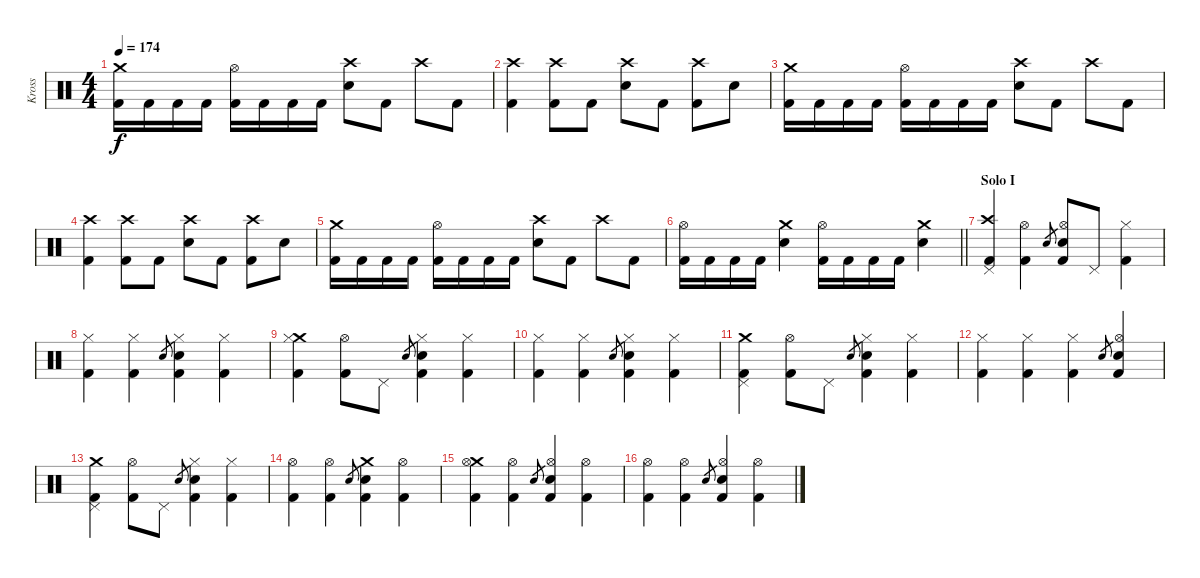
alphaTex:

\track ("Kross" "Kross") {instrument percussion}
\staff {score}
\articulation defaults
\ts (4 4)
\tempo 174
\clef neutral
\ks c
("Crash medium (hit)" "Kick (hit) 2").16{dy f} "Kick (hit) 2".16 "Kick (hit) 2".16 "Kick (hit) 2".16 ("Hi-Hat (open)" "Kick (hit) 2").16 "Kick (hit) 2".16 "Kick (hit) 2".16 "Kick (hit) 2".16 ("Crash high (hit)" "Electric Snare (hit)").8 "Kick (hit) 2".8 "Crash high (hit)".8 "Kick (hit) 2".8 |
("Crash high (hit)" "Kick (hit) 2").4 ("Crash high (hit)" "Kick (hit) 2").8 "Kick (hit) 2".8 ("Crash high (hit)" "Electric Snare (hit)").8 "Kick (hit) 2".8 ("Crash high (hit)" "Kick (hit) 2").8 "Electric Snare (hit)".8 |
("Crash medium (hit)" "Kick (hit) 2").16 "Kick (hit) 2".16 "Kick (hit) 2".16 "Kick (hit) 2".16 ("Hi-Hat (open)" "Kick (hit) 2").16 "Kick (hit) 2".16 "Kick (hit) 2".16 "Kick (hit) 2".16 ("Crash high (hit)" "Electric Snare (hit)").8 "Kick (hit) 2".8 "Crash high (hit)".8 "Kick (hit) 2".8 |
("Crash high (hit)" "Kick (hit) 2").4 ("Crash high (hit)" "Kick (hit) 2").8 "Kick (hit) 2".8 ("Crash high (hit)" "Electric Snare (hit)").8 "Kick (hit) 2".8 ("Crash high (hit)" "Kick (hit) 2").8 "Electric Snare (hit)".8 |
("Crash medium (hit)" "Kick (hit) 2").16 "Kick (hit) 2".16 "Kick (hit) 2".16 "Kick (hit) 2".16 ("Hi-Hat (open)" "Kick (hit) 2").16 "Kick (hit) 2".16 "Kick (hit) 2".16 "Kick (hit) 2".16 ("Crash high (hit)" "Electric Snare (hit)").8 "Kick (hit) 2".8 "Crash high (hit)".8 "Kick (hit) 2".8 |
\barLineRight lightlight
("Hi-Hat (open)" "Kick (hit) 2").16 "Kick (hit) 2".16 "Kick (hit) 2".16 "Kick (hit) 2".16 ("Crash medium (hit)" "Electric Snare (hit)").4 ("Hi-Hat (open)" "Kick (hit) 2").16 "Kick (hit) 2".16 "Kick (hit) 2".16 "Kick (hit) 2".16 ("Crash medium (hit)" "Electric Snare (hit)").4 |
\section ("" "Solo I")
("Crash high (hit)" "Pedal Hi-Hat (hit)" "Kick (hit) 2").4 ("Hi-Hat (open)" "Kick (hit) 2").4 "Electric Snare (hit)".8{gr} ("Hi-Hat (open)" "Electric Snare (hit)" "Kick (hit) 2").8 "Pedal Hi-Hat (hit)".8 ("Hi-Hat (closed)" "Kick (hit) 2").4 |
("Hi-Hat (closed)" "Kick (hit) 2").4 ("Hi-Hat (closed)" "Kick (hit) 2").4 "Electric Snare (hit)".8{gr} ("Hi-Hat (closed)" "Electric Snare (hit)" "Kick (hit) 2").4 ("Hi-Hat (closed)" "Kick (hit) 2").4 |
("Crash medium (hit)" "Hi-Hat (closed)" "Kick (hit) 2").4 ("Hi-Hat (open)" "Kick (hit) 2").8 "Pedal Hi-Hat (hit)".8 "Electric Snare (hit)".8{gr} ("Hi-Hat (closed)" "Electric Snare (hit)" "Kick (hit) 2").4 ("Hi-Hat (closed)" "Kick (hit) 2").4 |
("Hi-Hat (closed)" "Kick (hit) 2").4 ("Hi-Hat (closed)" "Kick (hit) 2").4 "Electric Snare (hit)".8{gr} ("Hi-Hat (closed)" "Electric Snare (hit)" "Kick (hit) 2").4 ("Hi-Hat (closed)" "Kick (hit) 2").4 |
("Crash medium (hit)" "Pedal Hi-Hat (hit)" "Kick (hit) 2").4 ("Hi-Hat (open)" "Kick (hit) 2").8 "Pedal Hi-Hat (hit)".8 "Electric Snare (hit)".8{gr} ("Hi-Hat (closed)" "Electric Snare (hit)" "Kick (hit) 2").4 ("Hi-Hat (closed)" "Kick (hit) 2").4 |
("Hi-Hat (closed)" "Kick (hit) 2").4 ("Hi-Hat (closed)" "Kick (hit) 2").4 ("Hi-Hat (closed)" "Kick (hit) 2").4 "Electric Snare (hit)".8{gr} ("Hi-Hat (open)" "Electric Snare (hit)" "Kick (hit) 2").4 |
("Crash medium (hit)" "Pedal Hi-Hat (hit)" "Kick (hit) 2").4 ("Hi-Hat (open)" "Kick (hit) 2").8 "Pedal Hi-Hat (hit)".8 "Electric Snare (hit)".8{gr} ("Hi-Hat (closed)" "Electric Snare (hit)" "Kick (hit) 2").4 ("Hi-Hat (closed)" "Kick (hit) 2").4 |
("Hi-Hat (open)" "Kick (hit) 2").4 ("Hi-Hat (open)" "Kick (hit) 2").4 "Electric Snare (hit)".8{gr} ("Crash medium (hit)" "Electric Snare (hit)" "Kick (hit) 2").4 ("Hi-Hat (open)" "Kick (hit) 2").4 |
("Crash medium (hit)" "Hi-Hat (open)" "Kick (hit) 2").4 ("Hi-Hat (open)" "Kick (hit) 2").4 "Electric Snare (hit)".8{gr} ("Hi-Hat (open)" "Electric Snare (hit)" "Kick (hit) 2").4 ("Hi-Hat (open)" "Kick (hit) 2").4 |
("Hi-Hat (open)" "Kick (hit) 2").4 ("Hi-Hat (open)" "Kick (hit) 2").4 "Electric Snare (hit)".8{gr} ("Hi-Hat (open)" "Electric Snare (hit)" "Kick (hit) 2").4 ("Hi-Hat (open)" "Kick (hit) 2").4
